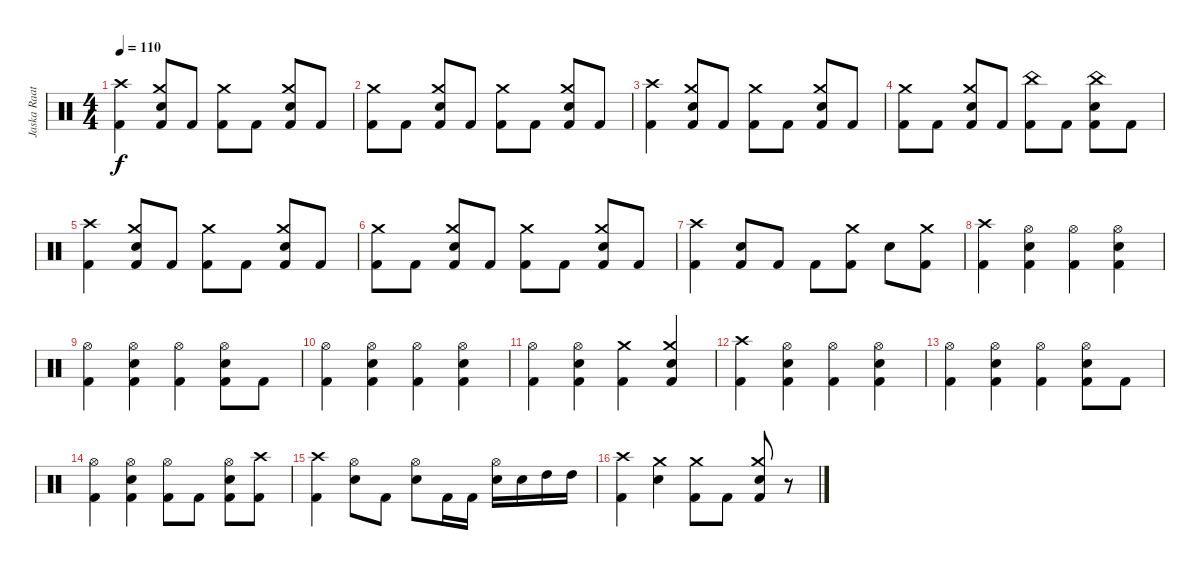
\track ("Jaska Raatikainen" "Jaska Raat") {instrument percussion}
\staff {score}
\articulation defaults
\ts (4 4)
\tempo 110
\clef neutral
\ks c
("Crash high (hit)" "Kick (hit) 2").4{dy f} ("Crash medium (hit)" "Snare (hit) 2" "Kick (hit) 2").8 "Kick (hit) 2".8 ("Crash medium (hit)" "Kick (hit) 2").8 "Kick (hit) 2".8 ("Crash medium (hit)" "Snare (hit) 2" "Kick (hit) 2").8 "Kick (hit) 2".8 |
("Crash medium (hit)" "Kick (hit) 2").8 "Kick (hit) 2".8 ("Crash medium (hit)" "Snare (hit) 2" "Kick (hit) 2").8 "Kick (hit) 2".8 ("Crash medium (hit)" "Kick (hit) 2").8 "Kick (hit) 2".8 ("Crash medium (hit)" "Snare (hit) 2" "Kick (hit) 2").8 "Kick (hit) 2".8 |
("Crash high (hit)" "Kick (hit) 2").4 ("Crash medium (hit)" "Snare (hit) 2" "Kick (hit) 2").8 "Kick (hit) 2".8 ("Crash medium (hit)" "Kick (hit) 2").8 "Kick (hit) 2".8 ("Crash medium (hit)" "Snare (hit) 2" "Kick (hit) 2").8 "Kick (hit) 2".8 |
("Crash medium (hit)" "Kick (hit) 2").8 "Kick (hit) 2".8 ("Crash medium (hit)" "Snare (hit) 2" "Kick (hit) 2").8 "Kick (hit) 2".8 ("China (hit)" "Kick (hit) 2").8 "Kick (hit) 2".8 ("China (hit)" "Snare (hit) 2" "Kick (hit) 2").8 "Kick (hit) 2".8 |
("Crash high (hit)" "Kick (hit) 2").4 ("Crash medium (hit)" "Snare (hit) 2" "Kick (hit) 2").8 "Kick (hit) 2".8 ("Crash medium (hit)" "Kick (hit) 2").8 "Kick (hit) 2".8 ("Crash medium (hit)" "Snare (hit) 2" "Kick (hit) 2").8 "Kick (hit) 2".8 |
("Crash medium (hit)" "Kick (hit) 2").8 "Kick (hit) 2".8 ("Crash medium (hit)" "Snare (hit) 2" "Kick (hit) 2").8 "Kick (hit) 2".8 ("Crash medium (hit)" "Kick (hit) 2").8 "Kick (hit) 2".8 ("Crash medium (hit)" "Snare (hit) 2" "Kick (hit) 2").8 "Kick (hit) 2".8 |
("Crash high (hit)" "Kick (hit) 2").4 ("Snare (hit) 2" "Kick (hit) 2").8 "Kick (hit) 2".8 "Kick (hit) 2".8 ("Crash medium (hit)" "Kick (hit) 2").8 "Snare (hit) 2".8 ("Crash medium (hit)" "Kick (hit) 2").8 |
("Crash high (hit)" "Kick (hit) 2").4 ("Hi-Hat (open)" "Snare (hit) 2" "Kick (hit) 2").4 ("Hi-Hat (open)" "Kick (hit) 2").4 ("Hi-Hat (open)" "Snare (hit) 2" "Kick (hit) 2").4 |
("Hi-Hat (open)" "Kick (hit) 2").4 ("Hi-Hat (open)" "Snare (hit) 2" "Kick (hit) 2").4 ("Hi-Hat (open)" "Kick (hit) 2").4 ("Hi-Hat (open)" "Snare (hit) 2" "Kick (hit) 2").8 "Kick (hit) 2".8 |
("Hi-Hat (open)" "Kick (hit) 2").4 ("Hi-Hat (open)" "Snare (hit) 2" "Kick (hit) 2").4 ("Hi-Hat (open)" "Kick (hit) 2").4 ("Hi-Hat (open)" "Snare (hit) 2" "Kick (hit) 2").4 |
("Hi-Hat (open)" "Kick (hit) 2").4 ("Hi-Hat (open)" "Snare (hit) 2" "Kick (hit) 2").4 ("Crash medium (hit)" "Kick (hit) 2").4 ("Crash medium (hit)" "Snare (hit) 2" "Kick (hit) 2").4 |
("Crash high (hit)" "Kick (hit) 2").4 ("Hi-Hat (open)" "Snare (hit) 2" "Kick (hit) 2").4 ("Hi-Hat (open)" "Kick (hit) 2").4 ("Hi-Hat (open)" "Snare (hit) 2" "Kick (hit) 2").4 |
("Hi-Hat (open)" "Kick (hit) 2").4 ("Hi-Hat (open)" "Snare (hit) 2" "Kick (hit) 2").4 ("Hi-Hat (open)" "Kick (hit) 2").4 ("Hi-Hat (open)" "Snare (hit) 2" "Kick (hit) 2").8 "Kick (hit) 2".8 |
("Hi-Hat (open)" "Kick (hit) 2").4 ("Hi-Hat (open)" "Snare (hit) 2" "Kick (hit) 2").4 ("Hi-Hat (open)" "Kick (hit) 2").8 "Kick (hit) 2".8 ("Hi-Hat (open)" "Snare (hit) 2" "Kick (hit) 2").8 ("Crash high (hit)" "Kick (hit) 2").8 |
("Crash high (hit)" "Kick (hit) 2").4 ("Hi-Hat (open)" "Snare (hit) 2").8 "Kick (hit) 2".8 ("Hi-Hat (open)" "Snare (hit) 2").8 "Kick (hit) 2".16 "Kick (hit) 2".16 ("Hi-Hat (open)" "Snare (hit) 2").16 "Snare (hit) 2".16 "High Tom (hit)".16 "High Tom (hit)".16 |
("Crash high (hit)" "Kick (hit) 2").4 ("Crash medium (hit)" "Snare (hit) 2").4 ("Crash medium (hit)" "Kick (hit) 2").8 "Kick (hit) 2".8 ("Crash medium (hit)" "Snare (hit) 2" "Kick (hit) 2").8 r.8
